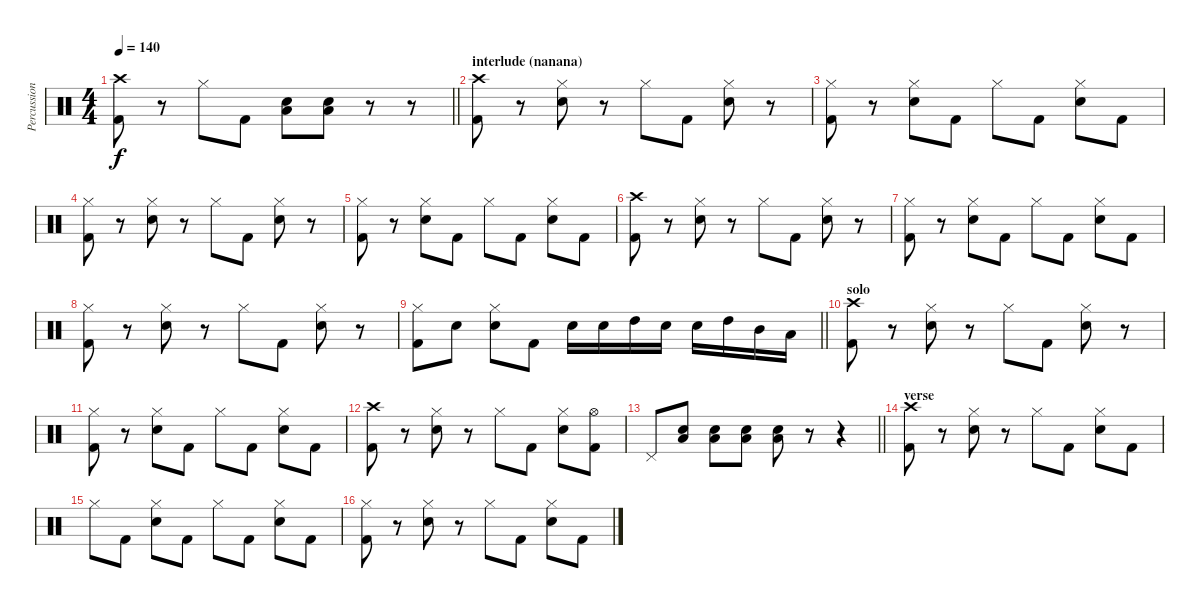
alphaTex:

\track ("Percussion" "Percussion") {instrument percussion}
\staff {score}
\articulation defaults
\ts (4 4)
\tempo 140
\clef neutral
\barLineRight lightlight
\ks c
("Crash high (hit)" "Kick (hit) 2").8{dy f} r.8 "Hi-Hat (closed)".8 "Kick (hit) 2".8 ("Low Floor Tom (hit)" "Snare (hit) 2").8 ("Low Floor Tom (hit)" "Snare (hit) 2").8 r.8 r.8 |
\section ("" "interlude (nanana)")
("Crash high (hit)" "Kick (hit) 2").8 r.8 ("Hi-Hat (closed)" "Snare (hit) 2").8 r.8 "Hi-Hat (closed)".8 "Kick (hit) 2".8 ("Hi-Hat (closed)" "Snare (hit) 2").8 r.8 |
("Hi-Hat (closed)" "Kick (hit) 2").8 r.8 ("Hi-Hat (closed)" "Snare (hit) 2").8 "Kick (hit) 2".8 "Hi-Hat (closed)".8 "Kick (hit) 2".8 ("Hi-Hat (closed)" "Snare (hit) 2").8 "Kick (hit) 2".8 |
("Hi-Hat (closed)" "Kick (hit) 2").8 r.8 ("Hi-Hat (closed)" "Snare (hit) 2").8 r.8 "Hi-Hat (closed)".8 "Kick (hit) 2".8 ("Hi-Hat (closed)" "Snare (hit) 2").8 r.8 |
("Hi-Hat (closed)" "Kick (hit) 2").8 r.8 ("Hi-Hat (closed)" "Snare (hit) 2").8 "Kick (hit) 2".8 "Hi-Hat (closed)".8 "Kick (hit) 2".8 ("Hi-Hat (closed)" "Snare (hit) 2").8 "Kick (hit) 2".8 |
("Crash high (hit)" "Kick (hit) 2").8 r.8 ("Hi-Hat (closed)" "Snare (hit) 2").8 r.8 "Hi-Hat (closed)".8 "Kick (hit) 2".8 ("Hi-Hat (closed)" "Snare (hit) 2").8 r.8 |
("Hi-Hat (closed)" "Kick (hit) 2").8 r.8 ("Hi-Hat (closed)" "Snare (hit) 2").8 "Kick (hit) 2".8 "Hi-Hat (closed)".8 "Kick (hit) 2".8 ("Hi-Hat (closed)" "Snare (hit) 2").8 "Kick (hit) 2".8 |
("Hi-Hat (closed)" "Kick (hit) 2").8 r.8 ("Hi-Hat (closed)" "Snare (hit) 2").8 r.8 "Hi-Hat (closed)".8 "Kick (hit) 2".8 ("Hi-Hat (closed)" "Snare (hit) 2").8 r.8 |
\barLineRight lightlight
("Hi-Hat (closed)" "Kick (hit) 2").8 "Snare (hit) 2".8 ("Hi-Hat (closed)" "Snare (hit) 2").8 "Kick (hit) 2".8 "Snare (hit) 2".16 "Snare (hit) 2".16 "High Tom (hit)".16 "Snare (hit) 2".16 "Snare (hit) 2".16 "High Tom (hit)".16 "Mid Tom (hit)".16 "Low Tom (hit)".16 |
\section ("" "solo")
("Crash high (hit)" "Kick (hit) 2").8 r.8 ("Hi-Hat (closed)" "Snare (hit) 2").8 r.8 "Hi-Hat (closed)".8 "Kick (hit) 2".8 ("Hi-Hat (closed)" "Snare (hit) 2").8 r.8 |
("Hi-Hat (closed)" "Kick (hit) 2").8 r.8 ("Hi-Hat (closed)" "Snare (hit) 2").8 "Kick (hit) 2".8 "Hi-Hat (closed)".8 "Kick (hit) 2".8 ("Hi-Hat (closed)" "Snare (hit) 2").8 "Kick (hit) 2".8 |
("Crash high (hit)" "Kick (hit) 2").8 r.8 ("Hi-Hat (closed)" "Snare (hit) 2").8 r.8 "Hi-Hat (closed)".8 "Kick (hit) 2".8 ("Hi-Hat (closed)" "Snare (hit) 2").8 ("Hi-Hat (open)" "Kick (hit) 2").8 |
\barLineRight lightlight "Pedal Hi-Hat (hit)".8
("Low Floor Tom (hit)" "Snare (hit) 2").8 ("Low Floor Tom (hit)" "Snare (hit) 2").8 ("Low Floor Tom (hit)" "Snare (hit) 2").8 ("Low Floor Tom (hit)" "Snare (hit) 2").8 r.8 r.4 |
\section ("" "verse")
("Crash high (hit)" "Kick (hit) 2").8 r.8 ("Hi-Hat (closed)" "Snare (hit) 2").8 r.8 "Hi-Hat (closed)".8 "Kick (hit) 2".8 ("Hi-Hat (closed)" "Snare (hit) 2").8 "Kick (hit) 2".8 |
"Hi-Hat (closed)".8 "Kick (hit) 2".8 ("Hi-Hat (closed)" "Snare (hit) 2").8 "Kick (hit) 2".8 "Hi-Hat (closed)".8 "Kick (hit) 2".8 ("Hi-Hat (closed)" "Snare (hit) 2").8 "Kick (hit) 2".8 |
("Hi-Hat (closed)" "Kick (hit) 2").8 r.8 ("Hi-Hat (closed)" "Snare (hit) 2").8 r.8 "Hi-Hat (closed)".8 "Kick (hit) 2".8 ("Hi-Hat (closed)" "Snare (hit) 2").8 "Kick (hit) 2".8
